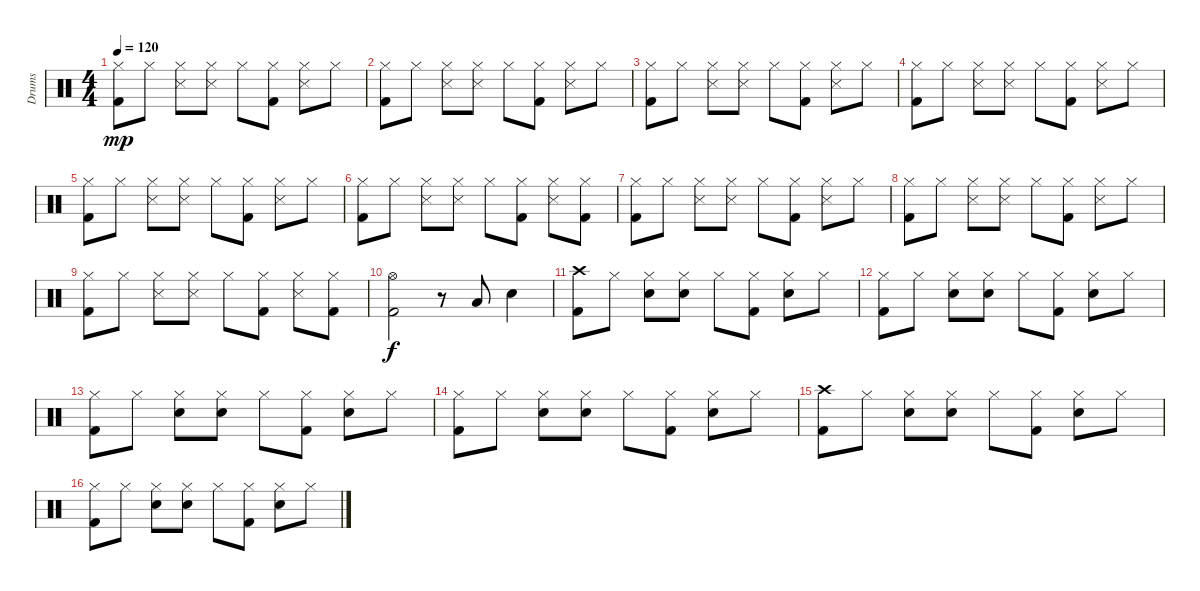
\track ("Drums" "Drums") {instrument percussion}
\staff {score}
\articulation defaults
\ts (4 4)
\tempo 120
\clef neutral
\ks c
("Hi-Hat (closed)" "Kick (hit) 2").8{dy mp} "Hi-Hat (closed)".8 ("Hi-Hat (closed)" "Snare (side stick) 3").8 ("Hi-Hat (closed)" "Snare (side stick) 3").8 "Hi-Hat (closed)".8 ("Hi-Hat (closed)" "Kick (hit) 2").8 ("Hi-Hat (closed)" "Snare (side stick) 3").8 "Hi-Hat (closed)".8 |
("Hi-Hat (closed)" "Kick (hit) 2").8 "Hi-Hat (closed)".8 ("Hi-Hat (closed)" "Snare (side stick) 3").8 ("Hi-Hat (closed)" "Snare (side stick) 3").8 "Hi-Hat (closed)".8 ("Hi-Hat (closed)" "Kick (hit) 2").8 ("Hi-Hat (closed)" "Snare (side stick) 3").8 "Hi-Hat (closed)".8 |
("Hi-Hat (closed)" "Kick (hit) 2").8 "Hi-Hat (closed)".8 ("Hi-Hat (closed)" "Snare (side stick) 3").8 ("Hi-Hat (closed)" "Snare (side stick) 3").8 "Hi-Hat (closed)".8 ("Hi-Hat (closed)" "Kick (hit) 2").8 ("Hi-Hat (closed)" "Snare (side stick) 3").8 "Hi-Hat (closed)".8 |
("Hi-Hat (closed)" "Kick (hit) 2").8 "Hi-Hat (closed)".8 ("Hi-Hat (closed)" "Snare (side stick) 3").8 ("Hi-Hat (closed)" "Snare (side stick) 3").8 "Hi-Hat (closed)".8 ("Hi-Hat (closed)" "Kick (hit) 2").8 ("Hi-Hat (closed)" "Snare (side stick) 3").8 "Hi-Hat (closed)".8 |
("Hi-Hat (closed)" "Kick (hit) 2").8 "Hi-Hat (closed)".8 ("Hi-Hat (closed)" "Snare (side stick) 3").8 ("Hi-Hat (closed)" "Snare (side stick) 3").8 "Hi-Hat (closed)".8 ("Hi-Hat (closed)" "Kick (hit) 2").8 ("Hi-Hat (closed)" "Snare (side stick) 3").8 "Hi-Hat (closed)".8 |
("Hi-Hat (closed)" "Kick (hit) 2").8 "Hi-Hat (closed)".8 ("Hi-Hat (closed)" "Snare (side stick) 3").8 ("Hi-Hat (closed)" "Snare (side stick) 3").8 "Hi-Hat (closed)".8 ("Hi-Hat (closed)" "Kick (hit) 2").8 ("Hi-Hat (closed)" "Snare (side stick) 3").8 ("Hi-Hat (closed)" "Kick (hit) 2").8 |
("Hi-Hat (closed)" "Kick (hit) 2").8 "Hi-Hat (closed)".8 ("Hi-Hat (closed)" "Snare (side stick) 3").8 ("Hi-Hat (closed)" "Snare (side stick) 3").8 "Hi-Hat (closed)".8 ("Hi-Hat (closed)" "Kick (hit) 2").8 ("Hi-Hat (closed)" "Snare (side stick) 3").8 "Hi-Hat (closed)".8 |
("Hi-Hat (closed)" "Kick (hit) 2").8 "Hi-Hat (closed)".8 ("Hi-Hat (closed)" "Snare (side stick) 3").8 ("Hi-Hat (closed)" "Snare (side stick) 3").8 "Hi-Hat (closed)".8 ("Hi-Hat (closed)" "Kick (hit) 2").8 ("Hi-Hat (closed)" "Snare (side stick) 3").8 "Hi-Hat (closed)".8 |
("Hi-Hat (closed)" "Kick (hit) 2").8 "Hi-Hat (closed)".8 ("Hi-Hat (closed)" "Snare (side stick) 3").8 ("Hi-Hat (closed)" "Snare (side stick) 3").8 "Hi-Hat (closed)".8 ("Hi-Hat (closed)" "Kick (hit) 2").8 ("Hi-Hat (closed)" "Snare (side stick) 3").8 ("Hi-Hat (closed)" "Kick (hit) 2").8 |
("Hi-Hat (open)" "Kick (hit) 2").2{dy f} r.8 "Low Tom (hit)".8 "Snare (hit) 2".4 |
("Crash high (hit)" "Kick (hit) 2").8 "Hi-Hat (closed)".8 ("Hi-Hat (closed)" "Snare (hit) 2").8 ("Hi-Hat (closed)" "Snare (hit) 2").8 "Hi-Hat (closed)".8 ("Hi-Hat (closed)" "Kick (hit) 2").8 ("Hi-Hat (closed)" "Snare (hit) 2").8 "Hi-Hat (closed)".8 |
("Hi-Hat (closed)" "Kick (hit) 2").8 "Hi-Hat (closed)".8 ("Hi-Hat (closed)" "Snare (hit) 2").8 ("Hi-Hat (closed)" "Snare (hit) 2").8 "Hi-Hat (closed)".8 ("Hi-Hat (closed)" "Kick (hit) 2").8 ("Hi-Hat (closed)" "Snare (hit) 2").8 "Hi-Hat (closed)".8 |
("Hi-Hat (closed)" "Kick (hit) 2").8 "Hi-Hat (closed)".8 ("Hi-Hat (closed)" "Snare (hit) 2").8 ("Hi-Hat (closed)" "Snare (hit) 2").8 "Hi-Hat (closed)".8 ("Hi-Hat (closed)" "Kick (hit) 2").8 ("Hi-Hat (closed)" "Snare (hit) 2").8 "Hi-Hat (closed)".8 |
("Hi-Hat (closed)" "Kick (hit) 2").8 "Hi-Hat (closed)".8 ("Hi-Hat (closed)" "Snare (hit) 2").8 ("Hi-Hat (closed)" "Snare (hit) 2").8 "Hi-Hat (closed)".8 ("Hi-Hat (closed)" "Kick (hit) 2").8 ("Hi-Hat (closed)" "Snare (hit) 2").8 "Hi-Hat (closed)".8 |
("Crash high (hit)" "Kick (hit) 2").8 "Hi-Hat (closed)".8 ("Hi-Hat (closed)" "Snare (hit) 2").8 ("Hi-Hat (closed)" "Snare (hit) 2").8 "Hi-Hat (closed)".8 ("Hi-Hat (closed)" "Kick (hit) 2").8 ("Hi-Hat (closed)" "Snare (hit) 2").8 "Hi-Hat (closed)".8 |
("Hi-Hat (closed)" "Kick (hit) 2").8 "Hi-Hat (closed)".8 ("Hi-Hat (closed)" "Snare (hit) 2").8 ("Hi-Hat (closed)" "Snare (hit) 2").8 "Hi-Hat (closed)".8 ("Hi-Hat (closed)" "Kick (hit) 2").8 ("Hi-Hat (closed)" "Snare (hit) 2").8 "Hi-Hat (closed)".8
